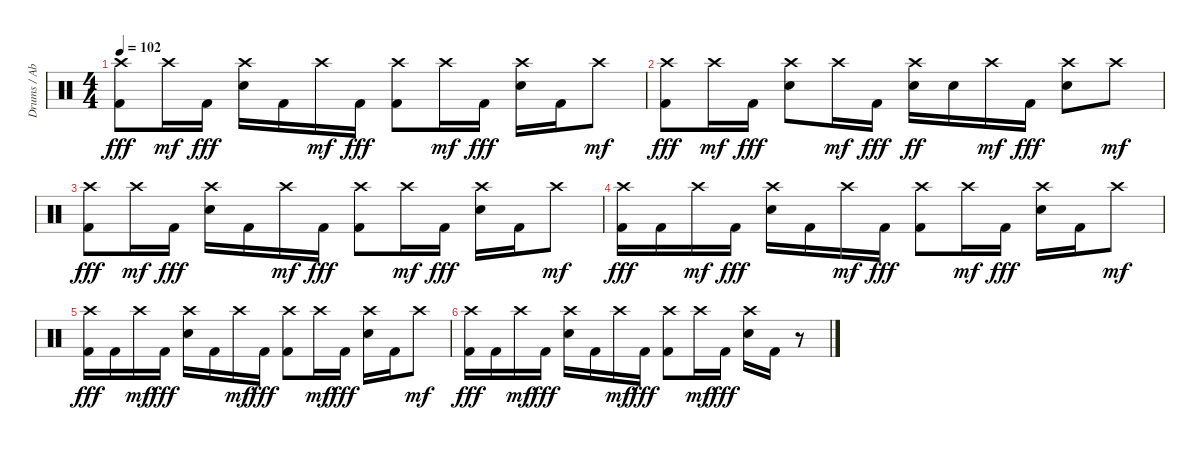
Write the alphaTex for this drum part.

\track ("Drums / Abe Cunningham" "Drums / Ab") {instrument percussion}
\staff {score}
\articulation defaults
\ts (4 4)
\tempo 102
\clef neutral
\ks c
("Crash high (hit)" "Kick (hit) 2").8{dy fff} "Crash high (hit)".16{dy mf} "Kick (hit) 2".16{dy fff} ("Crash high (hit)" "Electric Snare (hit)").16 "Kick (hit) 2".16 "Crash high (hit)".16{dy mf} "Kick (hit) 2".16{dy fff} ("Crash high (hit)" "Kick (hit) 2").8 "Crash high (hit)".16{dy mf} "Kick (hit) 2".16{dy fff} ("Crash high (hit)" "Electric Snare (hit)").16 "Kick (hit) 2".16 "Crash high (hit)".8{dy mf} |
("Crash high (hit)" "Kick (hit) 2").8{dy fff} "Crash high (hit)".16{dy mf} "Kick (hit) 2".16{dy fff} ("Crash high (hit)" "Electric Snare (hit)").8 "Crash high (hit)".16{dy mf} "Kick (hit) 2".16{dy fff} ("Crash high (hit)" "Electric Snare (hit)").16{dy ff} "Electric Snare (hit)".16 "Crash high (hit)".16{dy mf} "Kick (hit) 2".16{dy fff} ("Crash high (hit)" "Electric Snare (hit)").8 "Crash high (hit)".8{dy mf} |
("Crash high (hit)" "Kick (hit) 2").8{dy fff} "Crash high (hit)".16{dy mf} "Kick (hit) 2".16{dy fff} ("Crash high (hit)" "Electric Snare (hit)").16 "Kick (hit) 2".16 "Crash high (hit)".16{dy mf} "Kick (hit) 2".16{dy fff} ("Crash high (hit)" "Kick (hit) 2").8 "Crash high (hit)".16{dy mf} "Kick (hit) 2".16{dy fff} ("Crash high (hit)" "Electric Snare (hit)").16 "Kick (hit) 2".16 "Crash high (hit)".8{dy mf} |
("Crash high (hit)" "Kick (hit) 2").16{dy fff} "Kick (hit) 2".16 "Crash high (hit)".16{dy mf} "Kick (hit) 2".16{dy fff} ("Crash high (hit)" "Electric Snare (hit)").16 "Kick (hit) 2".16 "Crash high (hit)".16{dy mf} "Kick (hit) 2".16{dy fff} ("Crash high (hit)" "Kick (hit) 2").8 "Crash high (hit)".16{dy mf} "Kick (hit) 2".16{dy fff} ("Crash high (hit)" "Electric Snare (hit)").16 "Kick (hit) 2".16 "Crash high (hit)".8{dy mf} |
("Crash high (hit)" "Kick (hit) 2").16{dy fff} "Kick (hit) 2".16 "Crash high (hit)".16{dy mf} "Kick (hit) 2".16{dy fff} ("Crash high (hit)" "Electric Snare (hit)").16 "Kick (hit) 2".16 "Crash high (hit)".16{dy mf} "Kick (hit) 2".16{dy fff} ("Crash high (hit)" "Kick (hit) 2").8 "Crash high (hit)".16{dy mf} "Kick (hit) 2".16{dy fff} ("Crash high (hit)" "Electric Snare (hit)").16 "Kick (hit) 2".16 "Crash high (hit)".8{dy mf} |
("Crash high (hit)" "Kick (hit) 2").16{dy fff} "Kick (hit) 2".16 "Crash high (hit)".16{dy mf} "Kick (hit) 2".16{dy fff} ("Crash high (hit)" "Electric Snare (hit)").16 "Kick (hit) 2".16 "Crash high (hit)".16{dy mf} "Kick (hit) 2".16{dy fff} ("Crash high (hit)" "Kick (hit) 2").8 "Crash high (hit)".16{dy mf} "Kick (hit) 2".16{dy fff} ("Crash high (hit)" "Electric Snare (hit)").16 "Kick (hit) 2".16 r.8
